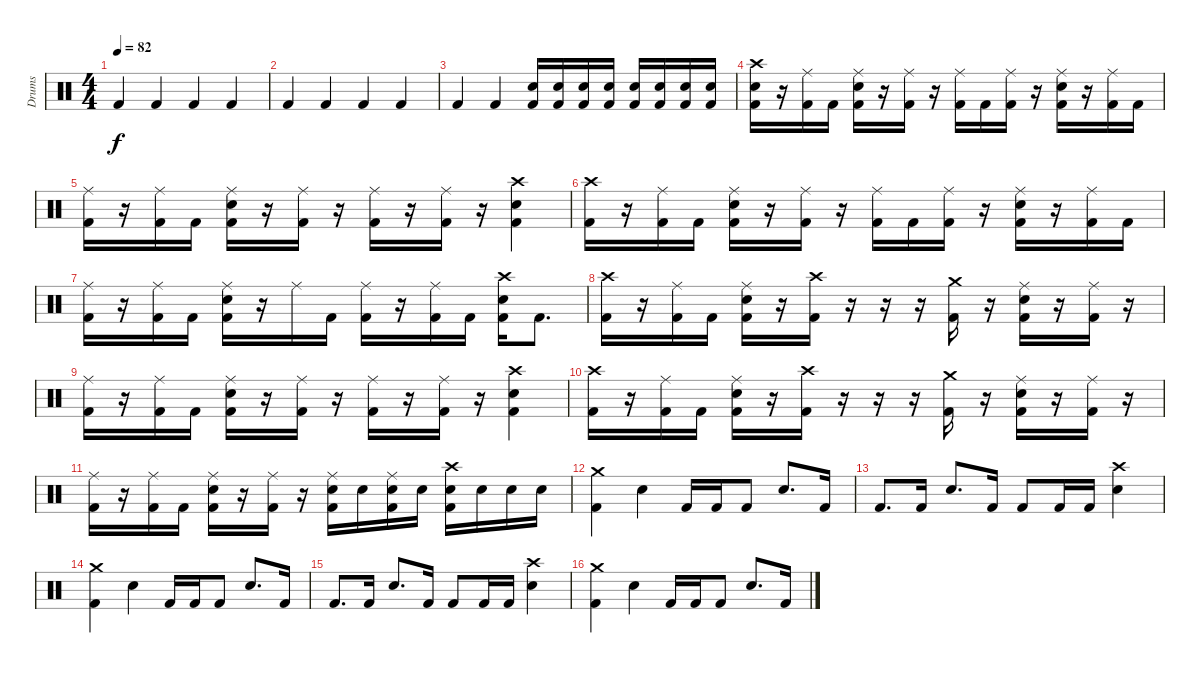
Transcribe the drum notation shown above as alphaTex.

\track ("Drums" "Drums") {instrument percussion}
\staff {score}
\articulation defaults
\ts (4 4)
\tempo 82
\clef neutral
\ks c "Kick (hit) 2".4{dy f} "Kick (hit) 2".4 "Kick (hit) 2".4 "Kick (hit) 2".4
|
"Kick (hit) 2".4 "Kick (hit) 2".4 "Kick (hit) 2".4 "Kick (hit) 2".4 |
"Kick (hit) 2".4{volume 7} "Kick (hit) 2".4{volume 14} ("Electric Snare (hit)" "Kick (hit) 2").16 ("Electric Snare (hit)" "Kick (hit) 2").16 ("Electric Snare (hit)" "Kick (hit) 2").16 ("Electric Snare (hit)" "Kick (hit) 2").16 ("Electric Snare (hit)" "Kick (hit) 2").16 ("Electric Snare (hit)" "Kick (hit) 2").16 ("Electric Snare (hit)" "Kick (hit) 2").16 ("Electric Snare (hit)" "Kick (hit) 2").16 |
("Crash high (hit)" "Electric Snare (hit)" "Kick (hit) 2").16 r.16 ("Ride (middle)" "Kick (hit) 2").16 "Kick (hit) 2".16 ("Ride (middle)" "Electric Snare (hit)" "Kick (hit) 2").16 r.16 ("Ride (middle)" "Kick (hit) 2").16 r.16 ("Ride (middle)" "Kick (hit) 2").16 "Kick (hit) 2".16 ("Ride (middle)" "Kick (hit) 2").16 r.16 ("Ride (middle)" "Electric Snare (hit)" "Kick (hit) 2").16 r.16 ("Ride (middle)" "Kick (hit) 2").16 "Kick (hit) 2".16 |
("Ride (middle)" "Kick (hit) 2").16 r.16 ("Ride (middle)" "Kick (hit) 2").16 "Kick (hit) 2".16 ("Ride (middle)" "Electric Snare (hit)" "Kick (hit) 2").16 r.16 ("Ride (middle)" "Kick (hit) 2").16 r.16 ("Ride (middle)" "Kick (hit) 2").16 r.16 ("Ride (middle)" "Kick (hit) 2").16 r.16 ("Crash high (hit)" "Electric Snare (hit)" "Kick (hit) 2").4 |
("Crash high (hit)" "Kick (hit) 2").16 r.16 ("Ride (middle)" "Kick (hit) 2").16 "Kick (hit) 2".16 ("Ride (middle)" "Electric Snare (hit)" "Kick (hit) 2").16 r.16 ("Ride (middle)" "Kick (hit) 2").16 r.16 ("Ride (middle)" "Kick (hit) 2").16 "Kick (hit) 2".16 ("Ride (middle)" "Kick (hit) 2").16 r.16 ("Ride (middle)" "Electric Snare (hit)" "Kick (hit) 2").16 r.16 ("Ride (middle)" "Kick (hit) 2").16 "Kick (hit) 2".16 |
("Ride (middle)" "Kick (hit) 2").16 r.16 ("Ride (middle)" "Kick (hit) 2").16 "Kick (hit) 2".16 ("Ride (middle)" "Electric Snare (hit)" "Kick (hit) 2").16 r.16 "Ride (middle)".16 "Kick (hit) 2".16 ("Ride (middle)" "Kick (hit) 2").16 r.16 ("Ride (middle)" "Kick (hit) 2").16 "Kick (hit) 2".16 ("Crash high (hit)" "Electric Snare (hit)" "Kick (hit) 2").16 "Kick (hit) 2".8{d} |
("Crash high (hit)" "Kick (hit) 2").16 r.16 ("Ride (middle)" "Kick (hit) 2").16 "Kick (hit) 2".16 ("Ride (middle)" "Electric Snare (hit)" "Kick (hit) 2").16 r.16 ("Crash high (hit)" "Kick (hit) 2").16 r.16 r.16 r.16 ("Crash medium (hit)" "Kick (hit) 2").16 r.16 ("Ride (middle)" "Electric Snare (hit)" "Kick (hit) 2").16 r.16 ("Ride (middle)" "Kick (hit) 2").16 r.16 |
("Ride (middle)" "Kick (hit) 2").16 r.16 ("Ride (middle)" "Kick (hit) 2").16 "Kick (hit) 2".16 ("Ride (middle)" "Electric Snare (hit)" "Kick (hit) 2").16 r.16 ("Ride (middle)" "Kick (hit) 2").16 r.16 ("Ride (middle)" "Kick (hit) 2").16 r.16 ("Ride (middle)" "Kick (hit) 2").16 r.16 ("Crash high (hit)" "Electric Snare (hit)" "Kick (hit) 2").4 |
("Crash high (hit)" "Kick (hit) 2").16 r.16 ("Ride (middle)" "Kick (hit) 2").16 "Kick (hit) 2".16 ("Ride (middle)" "Electric Snare (hit)" "Kick (hit) 2").16 r.16 ("Crash high (hit)" "Kick (hit) 2").16 r.16 r.16 r.16 ("Crash medium (hit)" "Kick (hit) 2").16 r.16 ("Ride (middle)" "Electric Snare (hit)" "Kick (hit) 2").16 r.16 ("Ride (middle)" "Kick (hit) 2").16 r.16 |
("Ride (middle)" "Kick (hit) 2").16 r.16 ("Ride (middle)" "Kick (hit) 2").16 "Kick (hit) 2".16 ("Ride (middle)" "Electric Snare (hit)" "Kick (hit) 2").16 r.16 ("Ride (middle)" "Kick (hit) 2").16 r.16 ("Ride (middle)" "Electric Snare (hit)" "Kick (hit) 2").16 "Electric Snare (hit)".16 ("Ride (middle)" "Electric Snare (hit)" "Kick (hit) 2").16 "Electric Snare (hit)".16 ("Crash high (hit)" "Electric Snare (hit)" "Kick (hit) 2").16 "Electric Snare (hit)".16 "Electric Snare (hit)".16 "Electric Snare (hit)".16 |
("Crash medium (hit)" "Kick (hit) 2").4 "Electric Snare (hit)".4 "Kick (hit) 2".16 "Kick (hit) 2".16 "Kick (hit) 2".8 "Electric Snare (hit)".8{d} "Kick (hit) 2".16 |
"Kick (hit) 2".8{d} "Kick (hit) 2".16 "Electric Snare (hit)".8{d} "Kick (hit) 2".16 "Kick (hit) 2".8 "Kick (hit) 2".16 "Kick (hit) 2".16 ("Crash high (hit)" "Electric Snare (hit)").4 |
("Crash medium (hit)" "Kick (hit) 2").4 "Electric Snare (hit)".4 "Kick (hit) 2".16 "Kick (hit) 2".16 "Kick (hit) 2".8 "Electric Snare (hit)".8{d} "Kick (hit) 2".16 |
"Kick (hit) 2".8{d} "Kick (hit) 2".16 "Electric Snare (hit)".8{d} "Kick (hit) 2".16 "Kick (hit) 2".8 "Kick (hit) 2".16 "Kick (hit) 2".16 ("Crash high (hit)" "Electric Snare (hit)").4 |
("Crash medium (hit)" "Kick (hit) 2").4 "Electric Snare (hit)".4 "Kick (hit) 2".16 "Kick (hit) 2".16 "Kick (hit) 2".8 "Electric Snare (hit)".8{d} "Kick (hit) 2".16
